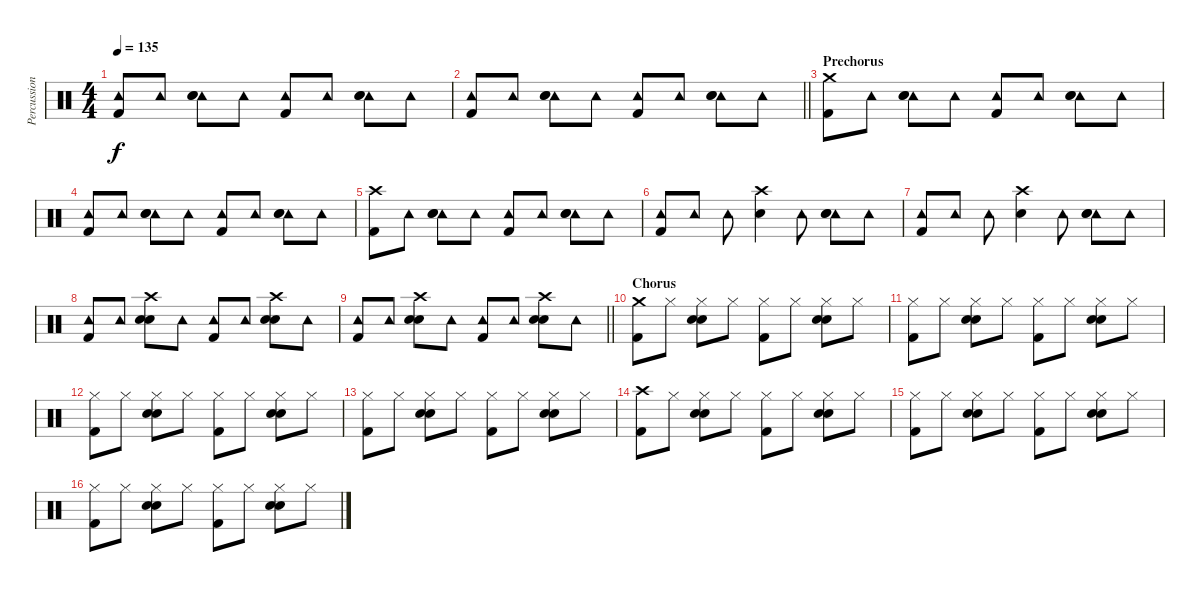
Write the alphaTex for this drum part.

\track ("Percussion" "Percussion") {instrument percussion}
\staff {score}
\articulation defaults
\ts (4 4)
\tempo 135
\clef neutral
\ks c
("Tambourine (hit)" "Kick (hit) 2").8{dy f} "Tambourine (hit)".8 ("Tambourine (hit)" "Snare (hit) 2" "Hand Clap (hit)").8 "Tambourine (hit)".8 ("Tambourine (hit)" "Kick (hit) 2").8 "Tambourine (hit)".8 ("Tambourine (hit)" "Snare (hit) 2" "Hand Clap (hit)").8 "Tambourine (hit)".8 |
\barLineRight lightlight
("Tambourine (hit)" "Kick (hit) 2").8 "Tambourine (hit)".8 ("Tambourine (hit)" "Snare (hit) 2" "Hand Clap (hit)").8 "Tambourine (hit)".8 ("Tambourine (hit)" "Kick (hit) 2").8 "Tambourine (hit)".8 ("Tambourine (hit)" "Snare (hit) 2" "Hand Clap (hit)").8 "Tambourine (hit)".8 |
\section ("" "Prechorus")
("Crash medium (hit)" "Kick (hit) 2").8 "Tambourine (hit)".8 ("Tambourine (hit)" "Snare (hit) 2" "Hand Clap (hit)").8 "Tambourine (hit)".8 ("Tambourine (hit)" "Kick (hit) 2").8 "Tambourine (hit)".8 ("Tambourine (hit)" "Snare (hit) 2" "Hand Clap (hit)").8 "Tambourine (hit)".8 |
("Tambourine (hit)" "Kick (hit) 2").8 "Tambourine (hit)".8 ("Tambourine (hit)" "Snare (hit) 2" "Hand Clap (hit)").8 "Tambourine (hit)".8 ("Tambourine (hit)" "Kick (hit) 2").8 "Tambourine (hit)".8 ("Tambourine (hit)" "Snare (hit) 2" "Hand Clap (hit)").8 "Tambourine (hit)".8 |
("Crash high (hit)" "Kick (hit) 2").8 "Tambourine (hit)".8 ("Tambourine (hit)" "Snare (hit) 2" "Hand Clap (hit)").8 "Tambourine (hit)".8 ("Tambourine (hit)" "Kick (hit) 2").8 "Tambourine (hit)".8 ("Tambourine (hit)" "Snare (hit) 2" "Hand Clap (hit)").8 "Tambourine (hit)".8 |
("Tambourine (hit)" "Kick (hit) 2").8 "Tambourine (hit)".8 "Tambourine (hit)".8 ("Crash high (hit)" "Snare (hit) 2").4 "Tambourine (hit)".8 ("Tambourine (hit)" "Snare (hit) 2" "Hand Clap (hit)").8 "Tambourine (hit)".8 |
("Tambourine (hit)" "Kick (hit) 2").8 "Tambourine (hit)".8 "Tambourine (hit)".8 ("Crash high (hit)" "Snare (hit) 2").4 "Tambourine (hit)".8 ("Tambourine (hit)" "Snare (hit) 2" "Hand Clap (hit)").8 "Tambourine (hit)".8 |
("Tambourine (hit)" "Kick (hit) 2").8 "Tambourine (hit)".8 ("Crash high (hit)" "Snare (hit) 2" "Hand Clap (hit)").8 "Tambourine (hit)".8 ("Tambourine (hit)" "Kick (hit) 2").8 "Tambourine (hit)".8 ("Crash high (hit)" "Snare (hit) 2" "Hand Clap (hit)").8 "Tambourine (hit)".8 |
\barLineRight lightlight
("Tambourine (hit)" "Kick (hit) 2").8 "Tambourine (hit)".8 ("Crash high (hit)" "Snare (hit) 2" "Hand Clap (hit)").8 "Tambourine (hit)".8 ("Tambourine (hit)" "Kick (hit) 2").8 "Tambourine (hit)".8 ("Crash high (hit)" "Snare (hit) 2" "Hand Clap (hit)").8 "Tambourine (hit)".8 |
\section ("" "Chorus")
("Crash medium (hit)" "Kick (hit) 2").8 "Hi-Hat (closed)".8 ("Hi-Hat (closed)" "Snare (hit) 2" "Hand Clap (hit)").8 "Hi-Hat (closed)".8 ("Hi-Hat (closed)" "Kick (hit) 2").8 "Hi-Hat (closed)".8 ("Hi-Hat (closed)" "Snare (hit) 2" "Hand Clap (hit)").8 "Hi-Hat (closed)".8 |
("Hi-Hat (closed)" "Kick (hit) 2").8 "Hi-Hat (closed)".8 ("Hi-Hat (closed)" "Snare (hit) 2" "Hand Clap (hit)").8 "Hi-Hat (closed)".8 ("Hi-Hat (closed)" "Kick (hit) 2").8 "Hi-Hat (closed)".8 ("Hi-Hat (closed)" "Snare (hit) 2" "Hand Clap (hit)").8 "Hi-Hat (closed)".8 |
("Hi-Hat (closed)" "Kick (hit) 2").8 "Hi-Hat (closed)".8 ("Hi-Hat (closed)" "Snare (hit) 2" "Hand Clap (hit)").8 "Hi-Hat (closed)".8 ("Hi-Hat (closed)" "Kick (hit) 2").8 "Hi-Hat (closed)".8 ("Hi-Hat (closed)" "Snare (hit) 2" "Hand Clap (hit)").8 "Hi-Hat (closed)".8 |
("Hi-Hat (closed)" "Kick (hit) 2").8 "Hi-Hat (closed)".8 ("Hi-Hat (closed)" "Snare (hit) 2" "Hand Clap (hit)").8 "Hi-Hat (closed)".8 ("Hi-Hat (closed)" "Kick (hit) 2").8 "Hi-Hat (closed)".8 ("Hi-Hat (closed)" "Snare (hit) 2" "Hand Clap (hit)").8 "Hi-Hat (closed)".8 |
("Crash high (hit)" "Kick (hit) 2").8 "Hi-Hat (closed)".8 ("Hi-Hat (closed)" "Snare (hit) 2" "Hand Clap (hit)").8 "Hi-Hat (closed)".8 ("Hi-Hat (closed)" "Kick (hit) 2").8 "Hi-Hat (closed)".8 ("Hi-Hat (closed)" "Snare (hit) 2" "Hand Clap (hit)").8 "Hi-Hat (closed)".8 |
("Hi-Hat (closed)" "Kick (hit) 2").8 "Hi-Hat (closed)".8 ("Hi-Hat (closed)" "Snare (hit) 2" "Hand Clap (hit)").8 "Hi-Hat (closed)".8 ("Hi-Hat (closed)" "Kick (hit) 2").8 "Hi-Hat (closed)".8 ("Hi-Hat (closed)" "Snare (hit) 2" "Hand Clap (hit)").8 "Hi-Hat (closed)".8 |
("Hi-Hat (closed)" "Kick (hit) 2").8 "Hi-Hat (closed)".8 ("Hi-Hat (closed)" "Snare (hit) 2" "Hand Clap (hit)").8 "Hi-Hat (closed)".8 ("Hi-Hat (closed)" "Kick (hit) 2").8 "Hi-Hat (closed)".8 ("Hi-Hat (closed)" "Snare (hit) 2" "Hand Clap (hit)").8 "Hi-Hat (closed)".8
